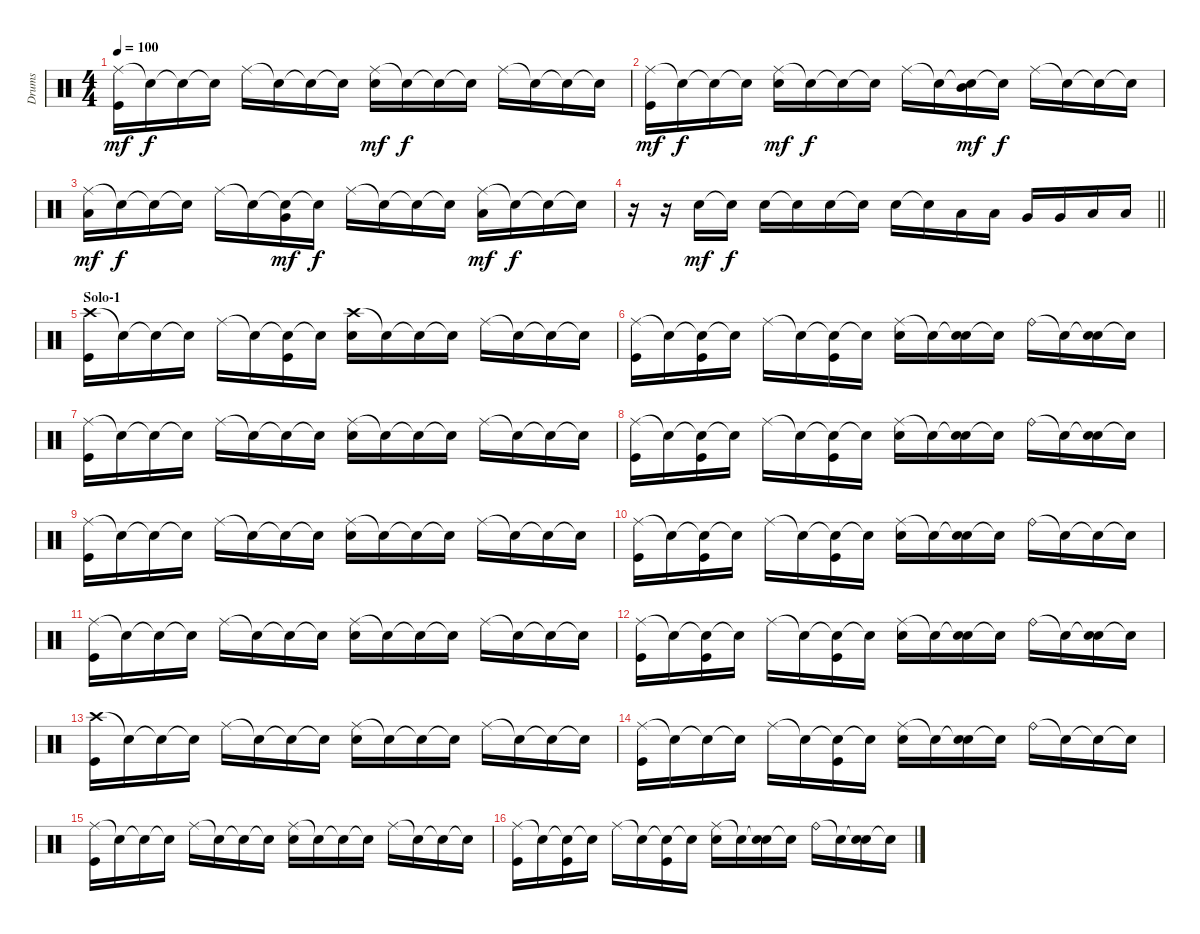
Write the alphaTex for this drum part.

\track ("Drums" "Drums") {instrument percussion}
\staff {score}
\articulation defaults
\ts (4 4)
\tempo 100
\clef neutral
\ks c
("Ride (middle)" "Kick (hit)").16{dy mf} "Snare (hit)"{t}.16{dy f} "Snare (hit)"{t}.16 "Snare (hit)"{t}.16 "Ride (middle)".16 "Snare (hit)"{t}.16 "Snare (hit)"{t}.16 "Snare (hit)"{t}.16 ("Ride (middle)" "Electric Snare (hit)").16{dy mf} "Snare (hit)"{t}.16{dy f} "Snare (hit)"{t}.16 "Snare (hit)"{t}.16 "Ride (middle)".16 "Snare (hit)"{t}.16 "Snare (hit)"{t}.16 "Snare (hit)"{t}.16 |
("Ride (middle)" "Kick (hit)").16{dy mf} "Snare (hit)"{t}.16{dy f} "Snare (hit)"{t}.16 "Snare (hit)"{t}.16 ("Ride (middle)" "Electric Snare (hit)").16{dy mf} "Snare (hit)"{t}.16{dy f} "Snare (hit)"{t}.16 "Snare (hit)"{t}.16 "Ride (middle)".16 "Snare (hit)"{t}.16 ("Snare (hit)"{t} "Mid Tom (hit)").16{dy mf} "Snare (hit)"{t}.16{dy f} "Ride (middle)".16 "Snare (hit)"{t}.16 "Snare (hit)"{t}.16 "Snare (hit)"{t}.16 |
("Ride (middle)" "Low Tom (hit)").16{dy mf} "Snare (hit)"{t}.16{dy f} "Snare (hit)"{t}.16 "Snare (hit)"{t}.16 "Ride (middle)".16 "Snare (hit)"{t}.16 ("Snare (hit)"{t} "Very Low Tom (hit)").16{dy mf} "Snare (hit)"{t}.16{dy f} "Ride (middle)".16 "Snare (hit)"{t}.16 "Snare (hit)"{t}.16 "Snare (hit)"{t}.16 ("Ride (middle)" "Low Floor Tom (hit)").16{dy mf} "Snare (hit)"{t}.16{dy f} "Snare (hit)"{t}.16 "Snare (hit)"{t}.16 |
\barLineRight lightlight
r.16 r.16 "Electric Snare (hit)".16{dy mf} "Snare (hit)"{t}.16{dy f} "Electric Snare (hit)".16 "Snare (hit)"{t}.16 "Electric Snare (hit)".16 "Snare (hit)"{t}.16 "Electric Snare (hit)".16 "Snare (hit)"{t}.16 "Low Tom (hit)".16 "Low Tom (hit)".16 "Very Low Tom (hit)".16 "Very Low Tom (hit)".16 "Low Floor Tom (hit)".16 "Low Floor Tom (hit)".16 |
\section ("" "Solo-1")
("Crash high (hit)" "Kick (hit)").16 "Snare (hit)"{t}.16 "Snare (hit)"{t}.16 "Snare (hit)"{t}.16 "Ride (middle)".16 "Snare (hit)"{t}.16 ("Snare (hit)"{t} "Kick (hit)").16 "Snare (hit)"{t}.16 ("Crash high (hit)" "Electric Snare (hit)").16 "Snare (hit)"{t}.16 "Snare (hit)"{t}.16 "Snare (hit)"{t}.16 "Ride (middle)".16 "Snare (hit)"{t}.16 "Snare (hit)"{t}.16 "Snare (hit)"{t}.16 |
("Ride (middle)" "Kick (hit)").16 "Snare (hit)"{t}.16 ("Snare (hit)"{t} "Kick (hit)").16 "Snare (hit)"{t}.16 "Ride (middle)".16 "Snare (hit)"{t}.16 ("Snare (hit)"{t} "Kick (hit)").16 "Snare (hit)"{t}.16 ("Ride (middle)" "Electric Snare (hit)").16 "Snare (hit)"{t}.16 ("Snare (hit)"{t} "Electric Snare (hit)").16 "Snare (hit)"{t}.16 "Ride (bell)".16 "Snare (hit)"{t}.16 ("Snare (hit)"{t} "Electric Snare (hit)").16 "Snare (hit)"{t}.16 |
("Ride (middle)" "Kick (hit)").16 "Snare (hit)"{t}.16 "Snare (hit)"{t}.16 "Snare (hit)"{t}.16 "Ride (middle)".16 "Snare (hit)"{t}.16 "Snare (hit)"{t}.16 "Snare (hit)"{t}.16 ("Ride (middle)" "Electric Snare (hit)").16 "Snare (hit)"{t}.16 "Snare (hit)"{t}.16 "Snare (hit)"{t}.16 "Ride (middle)".16 "Snare (hit)"{t}.16 "Snare (hit)"{t}.16 "Snare (hit)"{t}.16 |
("Ride (middle)" "Kick (hit)").16 "Snare (hit)"{t}.16 ("Snare (hit)"{t} "Kick (hit)").16 "Snare (hit)"{t}.16 "Ride (middle)".16 "Snare (hit)"{t}.16 ("Snare (hit)"{t} "Kick (hit)").16 "Snare (hit)"{t}.16 ("Ride (middle)" "Electric Snare (hit)").16 "Snare (hit)"{t}.16 ("Snare (hit)"{t} "Electric Snare (hit)").16 "Snare (hit)"{t}.16 "Ride (bell)".16 "Snare (hit)"{t}.16 ("Snare (hit)"{t} "Electric Snare (hit)").16 "Snare (hit)"{t}.16 |
("Ride (middle)" "Kick (hit)").16 "Snare (hit)"{t}.16 "Snare (hit)"{t}.16 "Snare (hit)"{t}.16 "Ride (middle)".16 "Snare (hit)"{t}.16 "Snare (hit)"{t}.16 "Snare (hit)"{t}.16 ("Ride (middle)" "Electric Snare (hit)").16 "Snare (hit)"{t}.16 "Snare (hit)"{t}.16 "Snare (hit)"{t}.16 "Ride (middle)".16 "Snare (hit)"{t}.16 "Snare (hit)"{t}.16 "Snare (hit)"{t}.16 |
("Ride (middle)" "Kick (hit)").16 "Snare (hit)"{t}.16 ("Snare (hit)"{t} "Kick (hit)").16 "Snare (hit)"{t}.16 "Ride (middle)".16 "Snare (hit)"{t}.16 ("Snare (hit)"{t} "Kick (hit)").16 "Snare (hit)"{t}.16 ("Ride (middle)" "Electric Snare (hit)").16 "Snare (hit)"{t}.16 ("Snare (hit)"{t} "Electric Snare (hit)").16 "Snare (hit)"{t}.16 "Ride (bell)".16 "Snare (hit)"{t}.16 "Snare (hit)"{t}.16 "Snare (hit)"{t}.16 |
("Ride (middle)" "Kick (hit)").16 "Snare (hit)"{t}.16 "Snare (hit)"{t}.16 "Snare (hit)"{t}.16 "Ride (middle)".16 "Snare (hit)"{t}.16 "Snare (hit)"{t}.16 "Snare (hit)"{t}.16 ("Ride (middle)" "Electric Snare (hit)").16 "Snare (hit)"{t}.16 "Snare (hit)"{t}.16 "Snare (hit)"{t}.16 "Ride (middle)".16 "Snare (hit)"{t}.16 "Snare (hit)"{t}.16 "Snare (hit)"{t}.16 |
("Ride (middle)" "Kick (hit)").16 "Snare (hit)"{t}.16 ("Snare (hit)"{t} "Kick (hit)").16 "Snare (hit)"{t}.16 "Ride (middle)".16 "Snare (hit)"{t}.16 ("Snare (hit)"{t} "Kick (hit)").16 "Snare (hit)"{t}.16 ("Ride (middle)" "Electric Snare (hit)").16 "Snare (hit)"{t}.16 ("Snare (hit)"{t} "Electric Snare (hit)").16 "Snare (hit)"{t}.16 "Ride (bell)".16 "Snare (hit)"{t}.16 ("Snare (hit)"{t} "Electric Snare (hit)").16 "Snare (hit)"{t}.16 |
("Crash high (hit)" "Kick (hit)").16 "Snare (hit)"{t}.16 "Snare (hit)"{t}.16 "Snare (hit)"{t}.16 "Ride (middle)".16 "Snare (hit)"{t}.16 "Snare (hit)"{t}.16 "Snare (hit)"{t}.16 ("Ride (middle)" "Electric Snare (hit)").16 "Snare (hit)"{t}.16 "Snare (hit)"{t}.16 "Snare (hit)"{t}.16 "Ride (middle)".16 "Snare (hit)"{t}.16 "Snare (hit)"{t}.16 "Snare (hit)"{t}.16 |
("Ride (middle)" "Kick (hit)").16 "Snare (hit)"{t}.16 "Snare (hit)"{t}.16 "Snare (hit)"{t}.16 "Ride (middle)".16 "Snare (hit)"{t}.16 ("Snare (hit)"{t} "Kick (hit)").16 "Snare (hit)"{t}.16 ("Ride (middle)" "Electric Snare (hit)").16 "Snare (hit)"{t}.16 ("Snare (hit)"{t} "Electric Snare (hit)").16 "Snare (hit)"{t}.16 "Ride (bell)".16 "Snare (hit)"{t}.16 "Snare (hit)"{t}.16 "Snare (hit)"{t}.16 |
("Ride (middle)" "Kick (hit)").16 "Snare (hit)"{t}.16 "Snare (hit)"{t}.16 "Snare (hit)"{t}.16 "Ride (middle)".16 "Snare (hit)"{t}.16 "Snare (hit)"{t}.16 "Snare (hit)"{t}.16 ("Ride (middle)" "Electric Snare (hit)").16 "Snare (hit)"{t}.16 "Snare (hit)"{t}.16 "Snare (hit)"{t}.16 "Ride (middle)".16 "Snare (hit)"{t}.16 "Snare (hit)"{t}.16 "Snare (hit)"{t}.16 |
("Ride (middle)" "Kick (hit)").16 "Snare (hit)"{t}.16 ("Snare (hit)"{t} "Kick (hit)").16 "Snare (hit)"{t}.16 "Ride (middle)".16 "Snare (hit)"{t}.16 ("Snare (hit)"{t} "Kick (hit)").16 "Snare (hit)"{t}.16 ("Ride (middle)" "Electric Snare (hit)").16 "Snare (hit)"{t}.16 ("Snare (hit)"{t} "Electric Snare (hit)").16 "Snare (hit)"{t}.16 "Ride (bell)".16 "Snare (hit)"{t}.16 ("Snare (hit)"{t} "Electric Snare (hit)").16 "Snare (hit)"{t}.16
